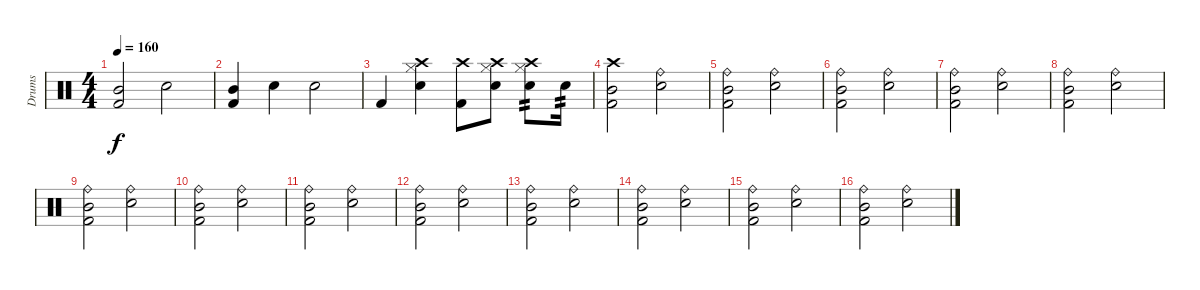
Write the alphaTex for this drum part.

\track ("Drums" "Drums") {instrument percussion}
\staff {score}
\articulation defaults
\ts (4 4)
\tempo 160
\clef neutral
\ks c
("Kick (hit) 2" "Mid Tom (hit)").2{dy f} "Electric Snare (hit)".2 |
("Kick (hit) 2" "Mid Tom (hit)").4 "Electric Snare (hit)".4 "Electric Snare (hit)".2 |
"Kick (hit) 2".4 ("Electric Snare (hit)" "Hi-Hat (closed)" "Crash high (hit)").4 ("Kick (hit) 2" "Crash high (hit)").8 ("Electric Snare (hit)" "Hi-Hat (closed)" "Crash high (hit)").8 ("Electric Snare (hit)" "Hi-Hat (closed)" "Crash high (hit)").8{tp 2} "Electric Snare (hit)".16{tp 2} |
("Kick (hit) 2" "Mid Tom (hit)" "Crash high (hit)").2 ("Electric Snare (hit)" "Ride (bell)").2 |
("Kick (hit) 2" "Mid Tom (hit)" "Ride (bell)").2 ("Electric Snare (hit)" "Ride (bell)").2 |
("Kick (hit) 2" "Mid Tom (hit)" "Ride (bell)").2 ("Electric Snare (hit)" "Ride (bell)").2 |
("Kick (hit) 2" "Mid Tom (hit)" "Ride (bell)").2 ("Electric Snare (hit)" "Ride (bell)").2 |
("Kick (hit) 2" "Mid Tom (hit)" "Ride (bell)").2 ("Electric Snare (hit)" "Ride (bell)").2 |
("Kick (hit) 2" "Mid Tom (hit)" "Ride (bell)").2 ("Electric Snare (hit)" "Ride (bell)").2 |
("Kick (hit) 2" "Mid Tom (hit)" "Ride (bell)").2 ("Electric Snare (hit)" "Ride (bell)").2 |
("Kick (hit) 2" "Mid Tom (hit)" "Ride (bell)").2 ("Electric Snare (hit)" "Ride (bell)").2 |
("Kick (hit) 2" "Mid Tom (hit)" "Ride (bell)").2 ("Electric Snare (hit)" "Ride (bell)").2 |
("Kick (hit) 2" "Mid Tom (hit)" "Ride (bell)").2 ("Electric Snare (hit)" "Ride (bell)").2 |
("Kick (hit) 2" "Mid Tom (hit)" "Ride (bell)").2 ("Electric Snare (hit)" "Ride (bell)").2 |
("Kick (hit) 2" "Mid Tom (hit)" "Ride (bell)").2 ("Electric Snare (hit)" "Ride (bell)").2 |
("Kick (hit) 2" "Mid Tom (hit)" "Ride (bell)").2 ("Electric Snare (hit)" "Ride (bell)").2
